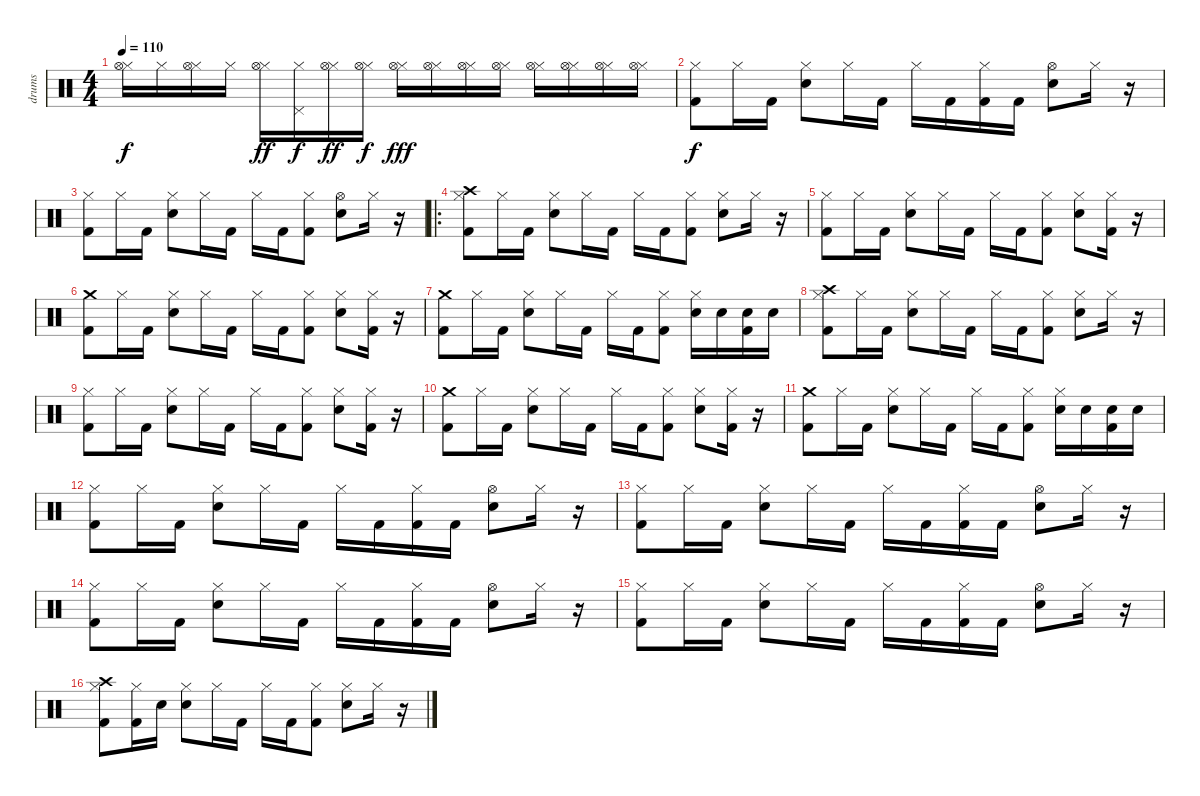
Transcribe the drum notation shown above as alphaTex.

\track ("drums" "drums") {instrument percussion}
\staff {score}
\articulation defaults
\ts (4 4)
\tempo 110
\clef neutral
\ks c
("Hi-Hat (closed)" "Hi-Hat (open)").16{dy f} "Hi-Hat (closed)".16 ("Hi-Hat (closed)" "Hi-Hat (open)").16 "Hi-Hat (closed)".16 ("Hi-Hat (closed)" "Hi-Hat (open)").16{dy ff} ("Hi-Hat (closed)" "Pedal Hi-Hat (hit)").16{dy f} ("Hi-Hat (closed)" "Hi-Hat (open)").16{dy ff} ("Hi-Hat (closed)" "Hi-Hat (open)").16{dy f} ("Hi-Hat (closed)" "Hi-Hat (open)").16{dy fff} ("Hi-Hat (closed)" "Hi-Hat (open)").16 ("Hi-Hat (closed)" "Hi-Hat (open)").16 ("Hi-Hat (closed)" "Hi-Hat (open)").16 ("Hi-Hat (closed)" "Hi-Hat (open)").16 ("Hi-Hat (closed)" "Hi-Hat (open)").16 ("Hi-Hat (closed)" "Hi-Hat (open)").16 ("Hi-Hat (closed)" "Hi-Hat (open)").16 |
("Hi-Hat (closed)" "Kick (hit) 2").8{dy f} "Hi-Hat (closed)".16 "Kick (hit) 2".16 ("Hi-Hat (closed)" "Electric Snare (hit)").8 "Hi-Hat (closed)".16 "Kick (hit) 2".16 "Hi-Hat (closed)".16 "Kick (hit) 2".16 ("Hi-Hat (closed)" "Kick (hit) 2").16 "Kick (hit) 2".16 ("Hi-Hat (open)" "Electric Snare (hit)").8 "Hi-Hat (closed)".16 r.16 |
("Hi-Hat (closed)" "Kick (hit) 2").8 "Hi-Hat (closed)".16 "Kick (hit) 2".16 ("Hi-Hat (closed)" "Electric Snare (hit)").8 "Hi-Hat (closed)".16 "Kick (hit) 2".16 "Hi-Hat (closed)".16 "Kick (hit) 2".16 ("Hi-Hat (closed)" "Kick (hit) 2").8 ("Hi-Hat (open)" "Electric Snare (hit)").8 "Hi-Hat (closed)".16 r.16 |
\ro
("Crash high (hit)" "Hi-Hat (closed)" "Kick (hit) 2").8 "Hi-Hat (closed)".16 "Kick (hit) 2".16 ("Hi-Hat (closed)" "Electric Snare (hit)").8 "Hi-Hat (closed)".16 "Kick (hit) 2".16 "Hi-Hat (closed)".16 "Kick (hit) 2".16 ("Hi-Hat (closed)" "Kick (hit) 2").8 ("Hi-Hat (closed)" "Electric Snare (hit)").8 "Hi-Hat (closed)".16 r.16 |
("Hi-Hat (closed)" "Kick (hit) 2").8 "Hi-Hat (closed)".16 "Kick (hit) 2".16 ("Hi-Hat (closed)" "Electric Snare (hit)").8 "Hi-Hat (closed)".16 "Kick (hit) 2".16 "Hi-Hat (closed)".16 "Kick (hit) 2".16 ("Hi-Hat (closed)" "Kick (hit) 2").8 ("Hi-Hat (closed)" "Electric Snare (hit)").8 ("Hi-Hat (closed)" "Kick (hit) 2").16 r.16 |
("Crash medium (hit)" "Kick (hit) 2").8 "Hi-Hat (closed)".16 "Kick (hit) 2".16 ("Hi-Hat (closed)" "Electric Snare (hit)").8 "Hi-Hat (closed)".16 "Kick (hit) 2".16 "Hi-Hat (closed)".16 "Kick (hit) 2".16 ("Hi-Hat (closed)" "Kick (hit) 2").8 ("Hi-Hat (closed)" "Electric Snare (hit)").8 ("Hi-Hat (closed)" "Kick (hit) 2").16 r.16 |
("Crash medium (hit)" "Kick (hit) 2").8 "Hi-Hat (closed)".16 "Kick (hit) 2".16 ("Hi-Hat (closed)" "Electric Snare (hit)").8 "Hi-Hat (closed)".16 "Kick (hit) 2".16 "Hi-Hat (closed)".16 "Kick (hit) 2".16 ("Hi-Hat (closed)" "Kick (hit) 2").8 ("Hi-Hat (closed)" "Electric Snare (hit)").16 "Electric Snare (hit)".16 ("Electric Snare (hit)" "Kick (hit) 2").16 "Electric Snare (hit)".16 |
("Crash high (hit)" "Hi-Hat (closed)" "Kick (hit) 2").8 "Hi-Hat (closed)".16 "Kick (hit) 2".16 ("Hi-Hat (closed)" "Electric Snare (hit)").8 "Hi-Hat (closed)".16 "Kick (hit) 2".16 "Hi-Hat (closed)".16 "Kick (hit) 2".16 ("Hi-Hat (closed)" "Kick (hit) 2").8 ("Hi-Hat (closed)" "Electric Snare (hit)").8 "Hi-Hat (closed)".16 r.16 |
("Hi-Hat (closed)" "Kick (hit) 2").8 "Hi-Hat (closed)".16 "Kick (hit) 2".16 ("Hi-Hat (closed)" "Electric Snare (hit)").8 "Hi-Hat (closed)".16 "Kick (hit) 2".16 "Hi-Hat (closed)".16 "Kick (hit) 2".16 ("Hi-Hat (closed)" "Kick (hit) 2").8 ("Hi-Hat (closed)" "Electric Snare (hit)").8 ("Hi-Hat (closed)" "Kick (hit) 2").16 r.16 |
("Crash medium (hit)" "Kick (hit) 2").8 "Hi-Hat (closed)".16 "Kick (hit) 2".16 ("Hi-Hat (closed)" "Electric Snare (hit)").8 "Hi-Hat (closed)".16 "Kick (hit) 2".16 "Hi-Hat (closed)".16 "Kick (hit) 2".16 ("Hi-Hat (closed)" "Kick (hit) 2").8 ("Hi-Hat (closed)" "Electric Snare (hit)").8 ("Hi-Hat (closed)" "Kick (hit) 2").16 r.16 |
("Crash medium (hit)" "Kick (hit) 2").8 "Hi-Hat (closed)".16 "Kick (hit) 2".16 ("Hi-Hat (closed)" "Electric Snare (hit)").8 "Hi-Hat (closed)".16 "Kick (hit) 2".16 "Hi-Hat (closed)".16 "Kick (hit) 2".16 ("Hi-Hat (closed)" "Kick (hit) 2").8 ("Hi-Hat (closed)" "Electric Snare (hit)").16 "Electric Snare (hit)".16 ("Electric Snare (hit)" "Kick (hit) 2").16 "Electric Snare (hit)".16 |
("Hi-Hat (closed)" "Kick (hit) 2").8 "Hi-Hat (closed)".16 "Kick (hit) 2".16 ("Hi-Hat (closed)" "Electric Snare (hit)").8 "Hi-Hat (closed)".16 "Kick (hit) 2".16 "Hi-Hat (closed)".16 "Kick (hit) 2".16 ("Hi-Hat (closed)" "Kick (hit) 2").16 "Kick (hit) 2".16 ("Hi-Hat (open)" "Electric Snare (hit)").8 "Hi-Hat (closed)".16 r.16 |
("Hi-Hat (closed)" "Kick (hit) 2").8 "Hi-Hat (closed)".16 "Kick (hit) 2".16 ("Hi-Hat (closed)" "Electric Snare (hit)").8 "Hi-Hat (closed)".16 "Kick (hit) 2".16 "Hi-Hat (closed)".16 "Kick (hit) 2".16 ("Hi-Hat (closed)" "Kick (hit) 2").16 "Kick (hit) 2".16 ("Hi-Hat (open)" "Electric Snare (hit)").8 "Hi-Hat (closed)".16 r.16 |
("Hi-Hat (closed)" "Kick (hit) 2").8 "Hi-Hat (closed)".16 "Kick (hit) 2".16 ("Hi-Hat (closed)" "Electric Snare (hit)").8 "Hi-Hat (closed)".16 "Kick (hit) 2".16 "Hi-Hat (closed)".16 "Kick (hit) 2".16 ("Hi-Hat (closed)" "Kick (hit) 2").16 "Kick (hit) 2".16 ("Hi-Hat (open)" "Electric Snare (hit)").8 "Hi-Hat (closed)".16 r.16 |
("Hi-Hat (closed)" "Kick (hit) 2").8 "Hi-Hat (closed)".16 "Kick (hit) 2".16 ("Hi-Hat (closed)" "Electric Snare (hit)").8 "Hi-Hat (closed)".16 "Kick (hit) 2".16 "Hi-Hat (closed)".16 "Kick (hit) 2".16 ("Hi-Hat (closed)" "Kick (hit) 2").16 "Kick (hit) 2".16 ("Hi-Hat (open)" "Electric Snare (hit)").8 "Hi-Hat (closed)".16 r.16 |
("Crash high (hit)" "Hi-Hat (closed)" "Kick (hit) 2").8 ("Hi-Hat (closed)" "Kick (hit) 2").16 "Electric Snare (hit)".16 ("Hi-Hat (closed)" "Electric Snare (hit)").8 "Hi-Hat (closed)".16 "Kick (hit) 2".16 "Hi-Hat (closed)".16 "Kick (hit) 2".16 ("Hi-Hat (closed)" "Kick (hit) 2").8 ("Hi-Hat (closed)" "Electric Snare (hit)").8 "Hi-Hat (closed)".16 r.16
